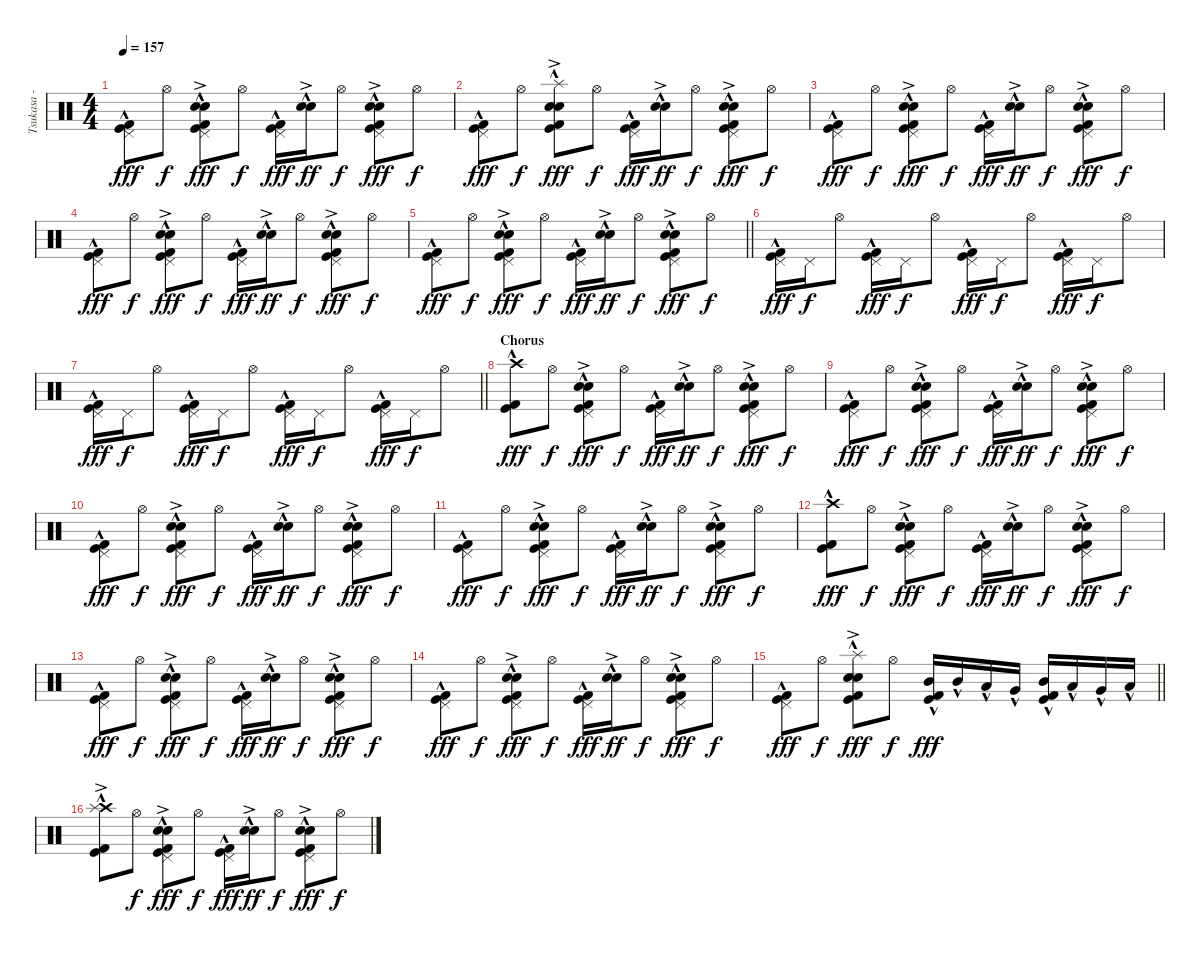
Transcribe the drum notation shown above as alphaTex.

\track ("Tsukasa - Drums" "Tsukasa - ") {instrument percussion}
\staff {score}
\articulation defaults
\ts (4 4)
\tempo 157
\clef neutral
\ks c
("Pedal Hi-Hat (hit)" "Kick (hit) 2"{hac} "Kick (hit)"{hac}).8{dy fff} "Hi-Hat (open)".8{dy f} ("Pedal Hi-Hat (hit)" "Electric Snare (hit)"{hac} "Snare (hit) 2"{ac} "Kick (hit) 2"{hac} "Kick (hit)"{hac}).8{dy fff} "Hi-Hat (open)".8{dy f} ("Pedal Hi-Hat (hit)" "Kick (hit) 2"{hac} "Kick (hit)"{hac}).16{dy fff} ("Electric Snare (hit)"{hac} "Snare (hit) 2"{ac}).16{dy ff} "Hi-Hat (open)".8{dy f} ("Pedal Hi-Hat (hit)" "Electric Snare (hit)"{hac} "Snare (hit) 2"{ac} "Kick (hit) 2"{hac} "Kick (hit)"{hac}).8{dy fff} "Hi-Hat (open)".8{dy f} |
("Pedal Hi-Hat (hit)" "Kick (hit) 2"{hac} "Kick (hit)"{hac}).8{dy fff} "Hi-Hat (open)".8{dy f} ("Splash (hit)"{hac} "Electric Snare (hit)"{hac} "Snare (hit) 2"{ac} "Kick (hit) 2"{hac} "Kick (hit)"{hac}).8{dy fff} "Hi-Hat (open)".8{dy f} ("Pedal Hi-Hat (hit)" "Kick (hit) 2"{hac} "Kick (hit)"{hac}).16{dy fff} ("Electric Snare (hit)"{hac} "Snare (hit) 2"{ac}).16{dy ff} "Hi-Hat (open)".8{dy f} ("Pedal Hi-Hat (hit)" "Electric Snare (hit)"{hac} "Snare (hit) 2"{ac} "Kick (hit) 2"{hac} "Kick (hit)"{hac}).8{dy fff} "Hi-Hat (open)".8{dy f} |
("Pedal Hi-Hat (hit)" "Kick (hit) 2"{hac} "Kick (hit)"{hac}).8{dy fff} "Hi-Hat (open)".8{dy f} ("Pedal Hi-Hat (hit)" "Electric Snare (hit)"{hac} "Snare (hit) 2"{ac} "Kick (hit) 2"{hac} "Kick (hit)"{hac}).8{dy fff} "Hi-Hat (open)".8{dy f} ("Pedal Hi-Hat (hit)" "Kick (hit) 2"{hac} "Kick (hit)"{hac}).16{dy fff} ("Electric Snare (hit)"{hac} "Snare (hit) 2"{ac}).16{dy ff} "Hi-Hat (open)".8{dy f} ("Pedal Hi-Hat (hit)" "Electric Snare (hit)"{hac} "Snare (hit) 2"{ac} "Kick (hit) 2"{hac} "Kick (hit)"{hac}).8{dy fff} "Hi-Hat (open)".8{dy f} |
("Pedal Hi-Hat (hit)" "Kick (hit) 2"{hac} "Kick (hit)"{hac}).8{dy fff} "Hi-Hat (open)".8{dy f} ("Pedal Hi-Hat (hit)" "Electric Snare (hit)"{hac} "Snare (hit) 2"{ac} "Kick (hit) 2"{hac} "Kick (hit)"{hac}).8{dy fff} "Hi-Hat (open)".8{dy f} ("Pedal Hi-Hat (hit)" "Kick (hit) 2"{hac} "Kick (hit)"{hac}).16{dy fff} ("Electric Snare (hit)"{hac} "Snare (hit) 2"{ac}).16{dy ff} "Hi-Hat (open)".8{dy f} ("Pedal Hi-Hat (hit)" "Electric Snare (hit)"{hac} "Snare (hit) 2"{ac} "Kick (hit) 2"{hac} "Kick (hit)"{hac}).8{dy fff} "Hi-Hat (open)".8{dy f} |
\barLineRight lightlight
("Pedal Hi-Hat (hit)" "Kick (hit) 2"{hac} "Kick (hit)"{hac}).8{dy fff} "Hi-Hat (open)".8{dy f} ("Pedal Hi-Hat (hit)" "Electric Snare (hit)"{hac} "Snare (hit) 2"{ac} "Kick (hit) 2"{hac} "Kick (hit)"{hac}).8{dy fff} "Hi-Hat (open)".8{dy f} ("Pedal Hi-Hat (hit)" "Kick (hit) 2"{hac} "Kick (hit)"{hac}).16{dy fff} ("Electric Snare (hit)"{hac} "Snare (hit) 2"{ac}).16{dy ff} "Hi-Hat (open)".8{dy f} ("Pedal Hi-Hat (hit)" "Electric Snare (hit)"{hac} "Snare (hit) 2"{ac} "Kick (hit) 2"{hac} "Kick (hit)"{hac}).8{dy fff} "Hi-Hat (open)".8{dy f} |
("Pedal Hi-Hat (hit)" "Kick (hit) 2"{hac} "Kick (hit)"{hac}).16{dy fff} "Pedal Hi-Hat (hit)".16{dy f} "Hi-Hat (open)".8 ("Pedal Hi-Hat (hit)" "Kick (hit) 2"{hac} "Kick (hit)"{hac}).16{dy fff} "Pedal Hi-Hat (hit)".16{dy f} "Hi-Hat (open)".8 ("Pedal Hi-Hat (hit)" "Kick (hit) 2"{hac} "Kick (hit)"{hac}).16{dy fff} "Pedal Hi-Hat (hit)".16{dy f} "Hi-Hat (open)".8 ("Pedal Hi-Hat (hit)" "Kick (hit) 2"{hac} "Kick (hit)"{hac}).16{dy fff} "Pedal Hi-Hat (hit)".16{dy f} "Hi-Hat (open)".8 |
\barLineRight lightlight
("Pedal Hi-Hat (hit)" "Kick (hit) 2"{hac} "Kick (hit)"{hac}).16{dy fff} "Pedal Hi-Hat (hit)".16{dy f} "Hi-Hat (open)".8 ("Pedal Hi-Hat (hit)" "Kick (hit) 2"{hac} "Kick (hit)"{hac}).16{dy fff} "Pedal Hi-Hat (hit)".16{dy f} "Hi-Hat (open)".8 ("Pedal Hi-Hat (hit)" "Kick (hit) 2"{hac} "Kick (hit)"{hac}).16{dy fff} "Pedal Hi-Hat (hit)".16{dy f} "Hi-Hat (open)".8 ("Pedal Hi-Hat (hit)" "Kick (hit) 2"{hac} "Kick (hit)"{hac}).16{dy fff} "Pedal Hi-Hat (hit)".16{dy f} "Hi-Hat (open)".8 |
\section ("" "Chorus")
("Crash high (hit)"{hac} "Kick (hit) 2"{hac} "Kick (hit)"{hac}).8{dy fff} "Hi-Hat (open)".8{dy f} ("Pedal Hi-Hat (hit)" "Electric Snare (hit)"{hac} "Snare (hit) 2"{ac} "Kick (hit) 2"{hac} "Kick (hit)"{hac}).8{dy fff} "Hi-Hat (open)".8{dy f} ("Pedal Hi-Hat (hit)" "Kick (hit) 2"{hac} "Kick (hit)"{hac}).16{dy fff} ("Electric Snare (hit)"{hac} "Snare (hit) 2"{ac}).16{dy ff} "Hi-Hat (open)".8{dy f} ("Pedal Hi-Hat (hit)" "Electric Snare (hit)"{hac} "Snare (hit) 2"{ac} "Kick (hit) 2"{hac} "Kick (hit)"{hac}).8{dy fff} "Hi-Hat (open)".8{dy f} |
("Pedal Hi-Hat (hit)" "Kick (hit) 2"{hac} "Kick (hit)"{hac}).8{dy fff} "Hi-Hat (open)".8{dy f} ("Pedal Hi-Hat (hit)" "Electric Snare (hit)"{hac} "Snare (hit) 2"{ac} "Kick (hit) 2"{hac} "Kick (hit)"{hac}).8{dy fff} "Hi-Hat (open)".8{dy f} ("Pedal Hi-Hat (hit)" "Kick (hit) 2"{hac} "Kick (hit)"{hac}).16{dy fff} ("Electric Snare (hit)"{hac} "Snare (hit) 2"{ac}).16{dy ff} "Hi-Hat (open)".8{dy f} ("Pedal Hi-Hat (hit)" "Electric Snare (hit)"{hac} "Snare (hit) 2"{ac} "Kick (hit) 2"{hac} "Kick (hit)"{hac}).8{dy fff} "Hi-Hat (open)".8{dy f} |
("Pedal Hi-Hat (hit)" "Kick (hit) 2"{hac} "Kick (hit)"{hac}).8{dy fff} "Hi-Hat (open)".8{dy f} ("Pedal Hi-Hat (hit)" "Electric Snare (hit)"{hac} "Snare (hit) 2"{ac} "Kick (hit) 2"{hac} "Kick (hit)"{hac}).8{dy fff} "Hi-Hat (open)".8{dy f} ("Pedal Hi-Hat (hit)" "Kick (hit) 2"{hac} "Kick (hit)"{hac}).16{dy fff} ("Electric Snare (hit)"{hac} "Snare (hit) 2"{ac}).16{dy ff} "Hi-Hat (open)".8{dy f} ("Pedal Hi-Hat (hit)" "Electric Snare (hit)"{hac} "Snare (hit) 2"{ac} "Kick (hit) 2"{hac} "Kick (hit)"{hac}).8{dy fff} "Hi-Hat (open)".8{dy f} |
("Pedal Hi-Hat (hit)" "Kick (hit) 2"{hac} "Kick (hit)"{hac}).8{dy fff} "Hi-Hat (open)".8{dy f} ("Pedal Hi-Hat (hit)" "Electric Snare (hit)"{hac} "Snare (hit) 2"{ac} "Kick (hit) 2"{hac} "Kick (hit)"{hac}).8{dy fff} "Hi-Hat (open)".8{dy f} ("Pedal Hi-Hat (hit)" "Kick (hit) 2"{hac} "Kick (hit)"{hac}).16{dy fff} ("Electric Snare (hit)"{hac} "Snare (hit) 2"{ac}).16{dy ff} "Hi-Hat (open)".8{dy f} ("Pedal Hi-Hat (hit)" "Electric Snare (hit)"{hac} "Snare (hit) 2"{ac} "Kick (hit) 2"{hac} "Kick (hit)"{hac}).8{dy fff} "Hi-Hat (open)".8{dy f} |
("Crash high (hit)"{hac} "Kick (hit) 2"{hac} "Kick (hit)"{hac}).8{dy fff} "Hi-Hat (open)".8{dy f} ("Pedal Hi-Hat (hit)" "Electric Snare (hit)"{hac} "Snare (hit) 2"{ac} "Kick (hit) 2"{hac} "Kick (hit)"{hac}).8{dy fff} "Hi-Hat (open)".8{dy f} ("Pedal Hi-Hat (hit)" "Kick (hit) 2"{hac} "Kick (hit)"{hac}).16{dy fff} ("Electric Snare (hit)"{hac} "Snare (hit) 2"{ac}).16{dy ff} "Hi-Hat (open)".8{dy f} ("Pedal Hi-Hat (hit)" "Electric Snare (hit)"{hac} "Snare (hit) 2"{ac} "Kick (hit) 2"{hac} "Kick (hit)"{hac}).8{dy fff} "Hi-Hat (open)".8{dy f} |
("Pedal Hi-Hat (hit)" "Kick (hit) 2"{hac} "Kick (hit)"{hac}).8{dy fff} "Hi-Hat (open)".8{dy f} ("Pedal Hi-Hat (hit)" "Electric Snare (hit)"{hac} "Snare (hit) 2"{ac} "Kick (hit) 2"{hac} "Kick (hit)"{hac}).8{dy fff} "Hi-Hat (open)".8{dy f} ("Pedal Hi-Hat (hit)" "Kick (hit) 2"{hac} "Kick (hit)"{hac}).16{dy fff} ("Electric Snare (hit)"{hac} "Snare (hit) 2"{ac}).16{dy ff} "Hi-Hat (open)".8{dy f} ("Pedal Hi-Hat (hit)" "Electric Snare (hit)"{hac} "Snare (hit) 2"{ac} "Kick (hit) 2"{hac} "Kick (hit)"{hac}).8{dy fff} "Hi-Hat (open)".8{dy f} |
("Pedal Hi-Hat (hit)" "Kick (hit) 2"{hac} "Kick (hit)"{hac}).8{dy fff} "Hi-Hat (open)".8{dy f} ("Pedal Hi-Hat (hit)" "Electric Snare (hit)"{hac} "Snare (hit) 2"{ac} "Kick (hit) 2"{hac} "Kick (hit)"{hac}).8{dy fff} "Hi-Hat (open)".8{dy f} ("Pedal Hi-Hat (hit)" "Kick (hit) 2"{hac} "Kick (hit)"{hac}).16{dy fff} ("Electric Snare (hit)"{hac} "Snare (hit) 2"{ac}).16{dy ff} "Hi-Hat (open)".8{dy f} ("Pedal Hi-Hat (hit)" "Electric Snare (hit)"{hac} "Snare (hit) 2"{ac} "Kick (hit) 2"{hac} "Kick (hit)"{hac}).8{dy fff} "Hi-Hat (open)".8{dy f} |
\barLineRight lightlight
("Pedal Hi-Hat (hit)" "Kick (hit) 2"{hac} "Kick (hit)"{hac}).8{dy fff} "Hi-Hat (open)".8{dy f} ("Splash (hit)"{hac} "Electric Snare (hit)"{hac} "Snare (hit) 2"{ac} "Kick (hit) 2"{hac} "Kick (hit)"{hac}).8{dy fff} "Hi-Hat (open)".8{dy f} ("Mid Tom (hit)"{hac} "Kick (hit) 2"{hac} "Kick (hit)"{hac}).16{dy fff} "Mid Tom (hit)"{hac}.16 "Low Tom (hit)"{hac}.16 "Very Low Tom (hit)"{hac}.16 ("Mid Tom (hit)"{hac} "Kick (hit) 2"{hac} "Kick (hit)"{hac}).16 "Low Tom (hit)"{hac}.16 "Very Low Tom (hit)"{hac}.16 "Low Floor Tom (hit)"{hac}.16 |
\section ("" "")
("Crash high (hit)"{hac} "Splash (hit)"{ac} "Kick (hit) 2"{hac} "Kick (hit)"{hac}).8 "Hi-Hat (open)".8{dy f} ("Pedal Hi-Hat (hit)" "Electric Snare (hit)"{hac} "Snare (hit) 2"{ac} "Kick (hit) 2"{hac} "Kick (hit)"{hac}).8{dy fff} "Hi-Hat (open)".8{dy f} ("Pedal Hi-Hat (hit)" "Kick (hit) 2"{hac} "Kick (hit)"{hac}).16{dy fff} ("Electric Snare (hit)"{hac} "Snare (hit) 2"{ac}).16{dy ff} "Hi-Hat (open)".8{dy f} ("Pedal Hi-Hat (hit)" "Electric Snare (hit)"{hac} "Snare (hit) 2"{ac} "Kick (hit) 2"{hac} "Kick (hit)"{hac}).8{dy fff} "Hi-Hat (open)".8{dy f}
